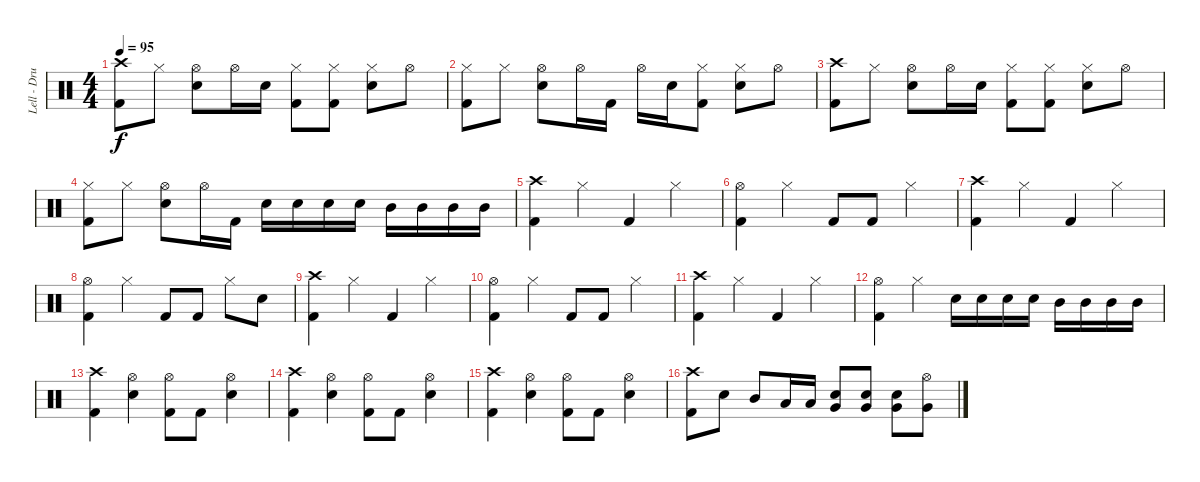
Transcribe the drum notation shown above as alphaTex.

\track ("Lell - Drums" "Lell - Dru") {instrument percussion}
\staff {score}
\articulation defaults
\ts (4 4)
\tempo 95
\clef neutral
\ks c
("Crash high (hit)" "Kick (hit) 2").8{dy f} "Hi-Hat (closed)".8 ("Hi-Hat (open)" "Snare (hit) 2").8 "Hi-Hat (open)".16 "Snare (hit) 2".16 ("Hi-Hat (closed)" "Kick (hit) 2").8 ("Hi-Hat (closed)" "Kick (hit) 2").8 ("Hi-Hat (closed)" "Snare (hit) 2").8 "Hi-Hat (open)".8 |
("Hi-Hat (closed)" "Kick (hit) 2").8 "Hi-Hat (closed)".8 ("Hi-Hat (open)" "Snare (hit) 2").8 "Hi-Hat (open)".16 "Kick (hit) 2".16 "Hi-Hat (open)".16 "Snare (hit) 2".16 ("Hi-Hat (closed)" "Kick (hit) 2").8 ("Hi-Hat (closed)" "Snare (hit) 2").8 "Hi-Hat (open)".8 |
("Crash high (hit)" "Kick (hit) 2").8 "Hi-Hat (closed)".8 ("Hi-Hat (open)" "Snare (hit) 2").8 "Hi-Hat (open)".16 "Snare (hit) 2".16 ("Hi-Hat (closed)" "Kick (hit) 2").8 ("Hi-Hat (closed)" "Kick (hit) 2").8 ("Hi-Hat (closed)" "Snare (hit) 2").8 "Hi-Hat (open)".8 |
("Hi-Hat (closed)" "Kick (hit) 2").8 "Hi-Hat (closed)".8 ("Hi-Hat (open)" "Snare (hit) 2").8 "Hi-Hat (open)".16 "Kick (hit) 2".16 "Snare (hit) 2".16 "Snare (hit) 2".16 "Snare (hit) 2".16 "Snare (hit) 2".16 "Mid Tom (hit)".16 "Mid Tom (hit)".16 "Mid Tom (hit)".16 "Mid Tom (hit)".16 |
("Crash high (hit)" "Kick (hit) 2").4 "Hi-Hat (closed)".4 "Kick (hit) 2".4 "Hi-Hat (closed)".4 |
("Hi-Hat (open)" "Kick (hit) 2").4 "Hi-Hat (closed)".4 "Kick (hit) 2".8 "Kick (hit) 2".8 "Hi-Hat (closed)".4 |
("Crash high (hit)" "Kick (hit) 2").4 "Hi-Hat (closed)".4 "Kick (hit) 2".4 "Hi-Hat (closed)".4 |
("Hi-Hat (open)" "Kick (hit) 2").4 "Hi-Hat (closed)".4 "Kick (hit) 2".8 "Kick (hit) 2".8 "Hi-Hat (closed)".8 "Snare (hit) 2".8 |
("Crash high (hit)" "Kick (hit) 2").4 "Hi-Hat (closed)".4 "Kick (hit) 2".4 "Hi-Hat (closed)".4 |
("Hi-Hat (open)" "Kick (hit) 2").4 "Hi-Hat (closed)".4 "Kick (hit) 2".8 "Kick (hit) 2".8 "Hi-Hat (closed)".4 |
("Crash high (hit)" "Kick (hit) 2").4 "Hi-Hat (closed)".4 "Kick (hit) 2".4 "Hi-Hat (closed)".4 |
("Hi-Hat (open)" "Kick (hit) 2").4 "Hi-Hat (closed)".4 "Snare (hit) 2".16 "Snare (hit) 2".16 "Snare (hit) 2".16 "Snare (hit) 2".16 "Mid Tom (hit)".16 "Mid Tom (hit)".16 "Mid Tom (hit)".16 "Mid Tom (hit)".16 |
("Crash high (hit)" "Kick (hit) 2").4 ("Hi-Hat (open)" "Snare (hit) 2").4 ("Hi-Hat (open)" "Kick (hit) 2").8 "Kick (hit) 2".8 ("Hi-Hat (open)" "Snare (hit) 2").4 |
("Crash high (hit)" "Kick (hit) 2").4 ("Hi-Hat (open)" "Snare (hit) 2").4 ("Hi-Hat (open)" "Kick (hit) 2").8 "Kick (hit) 2".8 ("Hi-Hat (open)" "Snare (hit) 2").4 |
("Crash high (hit)" "Kick (hit) 2").4 ("Hi-Hat (open)" "Snare (hit) 2").4 ("Hi-Hat (open)" "Kick (hit) 2").8 "Kick (hit) 2".8 ("Hi-Hat (open)" "Snare (hit) 2").4 |
("Crash high (hit)" "Kick (hit) 2").8 "Snare (hit) 2".8 "Mid Tom (hit)".8 "Low Tom (hit)".16 "Low Tom (hit)".16 ("Very Low Tom (hit)" "Snare (hit) 2").8 ("Very Low Tom (hit)" "Snare (hit) 2").8 ("Very Low Tom (hit)" "Snare (hit) 2").8 ("Hi-Hat (open)" "Very Low Tom (hit)").8
